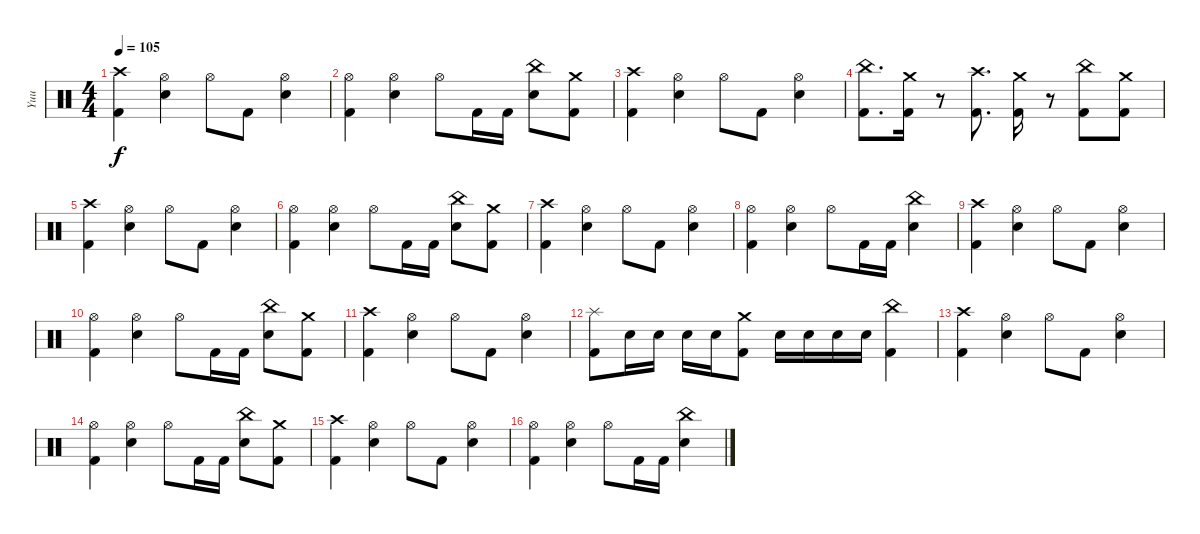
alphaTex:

\track ("Yuu" "Yuu") {instrument percussion}
\staff {score}
\articulation defaults
\ts (4 4)
\tempo 105
\clef neutral
\ks c
("Crash high (hit)" "Kick (hit) 2").4{dy f} ("Hi-Hat (open)" "Electric Snare (hit)").4 "Hi-Hat (open)".8 "Kick (hit) 2".8 ("Hi-Hat (open)" "Electric Snare (hit)").4 |
("Hi-Hat (open)" "Kick (hit) 2").4 ("Hi-Hat (open)" "Electric Snare (hit)").4 "Hi-Hat (open)".8 "Kick (hit) 2".16 "Kick (hit) 2".16 ("China (hit)" "Electric Snare (hit)").8 ("Crash medium (hit)" "Kick (hit) 2").8 |
("Crash high (hit)" "Kick (hit) 2").4 ("Hi-Hat (open)" "Electric Snare (hit)").4 "Hi-Hat (open)".8 "Kick (hit) 2".8 ("Hi-Hat (open)" "Electric Snare (hit)").4 |
("China (hit)" "Kick (hit) 2").8{d} ("Crash medium (hit)" "Kick (hit) 2").16 r.8 ("Crash high (hit)" "Kick (hit) 2").8{d} ("Crash medium (hit)" "Kick (hit) 2").16 r.8 ("China (hit)" "Kick (hit) 2").8 ("Crash medium (hit)" "Kick (hit) 2").8 |
("Crash high (hit)" "Kick (hit) 2").4 ("Hi-Hat (open)" "Electric Snare (hit)").4 "Hi-Hat (open)".8 "Kick (hit) 2".8 ("Hi-Hat (open)" "Electric Snare (hit)").4 |
("Hi-Hat (open)" "Kick (hit) 2").4 ("Hi-Hat (open)" "Electric Snare (hit)").4 "Hi-Hat (open)".8 "Kick (hit) 2".16 "Kick (hit) 2".16 ("China (hit)" "Electric Snare (hit)").8 ("Crash medium (hit)" "Kick (hit) 2").8 |
("Crash high (hit)" "Kick (hit) 2").4 ("Hi-Hat (open)" "Electric Snare (hit)").4 "Hi-Hat (open)".8 "Kick (hit) 2".8 ("Hi-Hat (open)" "Electric Snare (hit)").4 |
("Hi-Hat (open)" "Kick (hit) 2").4 ("Hi-Hat (open)" "Electric Snare (hit)").4 "Hi-Hat (open)".8 "Kick (hit) 2".16 "Kick (hit) 2".16 ("China (hit)" "Electric Snare (hit)").4 |
("Crash high (hit)" "Kick (hit) 2").4 ("Hi-Hat (open)" "Electric Snare (hit)").4 "Hi-Hat (open)".8 "Kick (hit) 2".8 ("Hi-Hat (open)" "Electric Snare (hit)").4 |
("Hi-Hat (open)" "Kick (hit) 2").4 ("Hi-Hat (open)" "Electric Snare (hit)").4 "Hi-Hat (open)".8 "Kick (hit) 2".16 "Kick (hit) 2".16 ("China (hit)" "Electric Snare (hit)").8 ("Crash medium (hit)" "Kick (hit) 2").8 |
("Crash high (hit)" "Kick (hit) 2").4 ("Hi-Hat (open)" "Electric Snare (hit)").4 "Hi-Hat (open)".8 "Kick (hit) 2".8 ("Hi-Hat (open)" "Electric Snare (hit)").4 |
("Splash (hit)" "Kick (hit) 2").8 "Electric Snare (hit)".16 "Electric Snare (hit)".16 "Electric Snare (hit)".16 "Electric Snare (hit)".16 ("Crash medium (hit)" "Kick (hit) 2").8 "Electric Snare (hit)".16 "Electric Snare (hit)".16 "Electric Snare (hit)".16 "Electric Snare (hit)".16 ("China (hit)" "Kick (hit) 2").4 |
("Crash high (hit)" "Kick (hit) 2").4 ("Hi-Hat (open)" "Electric Snare (hit)").4 "Hi-Hat (open)".8 "Kick (hit) 2".8 ("Hi-Hat (open)" "Electric Snare (hit)").4 |
("Hi-Hat (open)" "Kick (hit) 2").4 ("Hi-Hat (open)" "Electric Snare (hit)").4 "Hi-Hat (open)".8 "Kick (hit) 2".16 "Kick (hit) 2".16 ("China (hit)" "Electric Snare (hit)").8 ("Crash medium (hit)" "Kick (hit) 2").8 |
("Crash high (hit)" "Kick (hit) 2").4 ("Hi-Hat (open)" "Electric Snare (hit)").4 "Hi-Hat (open)".8 "Kick (hit) 2".8 ("Hi-Hat (open)" "Electric Snare (hit)").4 |
("Hi-Hat (open)" "Kick (hit) 2").4 ("Hi-Hat (open)" "Electric Snare (hit)").4 "Hi-Hat (open)".8 "Kick (hit) 2".16 "Kick (hit) 2".16 ("China (hit)" "Electric Snare (hit)").4
